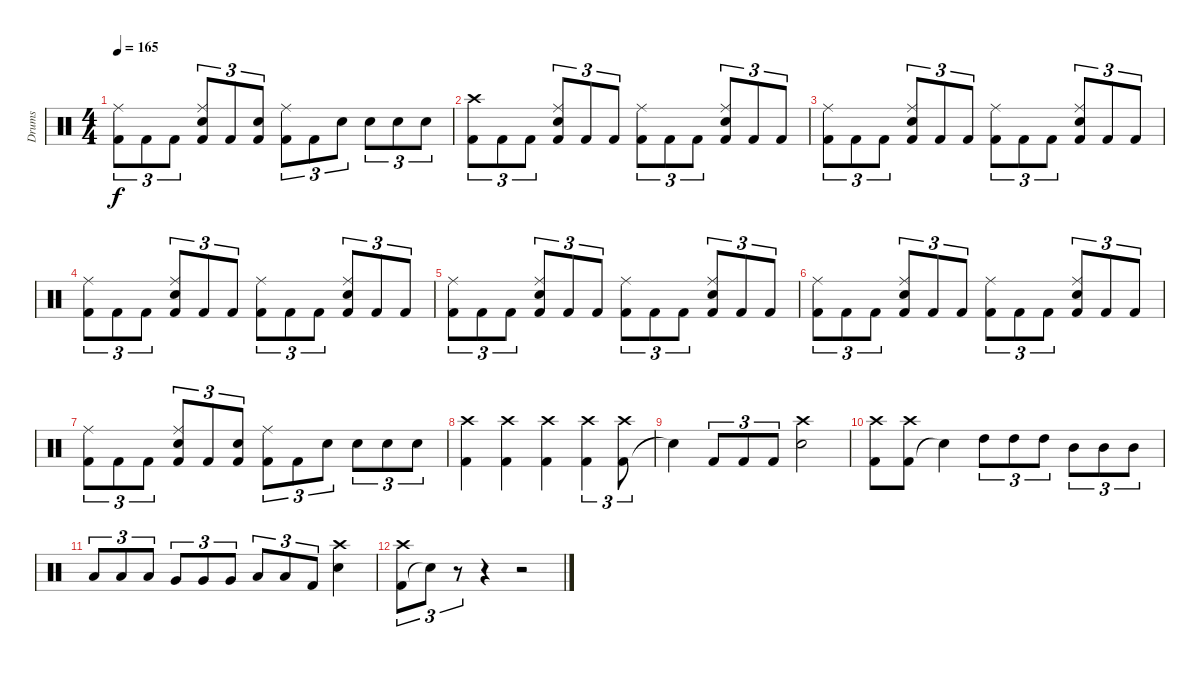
\track ("Drums" "Drums") {instrument percussion}
\staff {score}
\articulation defaults
\ts (4 4)
\tempo 165
\clef neutral
\ks c
("Kick (hit) 2" "Ride (middle)").8{tu (3 2) dy f} "Kick (hit) 2".8{tu (3 2)} "Kick (hit) 2".8{tu (3 2)} ("Kick (hit) 2" "Snare (hit) 2" "Ride (middle)").8{tu (3 2)} "Kick (hit) 2".8{tu (3 2)} ("Kick (hit) 2" "Snare (hit) 2").8{tu (3 2)} ("Kick (hit) 2" "Ride (middle)").8{tu (3 2)} "Kick (hit) 2".8{tu (3 2)} "Snare (hit) 2".8{tu (3 2)} "Snare (hit) 2".8{tu (3 2)} "Snare (hit) 2".8{tu (3 2)} "Snare (hit) 2".8{tu (3 2)} |
("Kick (hit) 2" "Crash high (hit)").8{tu (3 2)} "Kick (hit) 2".8{tu (3 2)} "Kick (hit) 2".8{tu (3 2)} ("Kick (hit) 2" "Snare (hit) 2" "Ride (middle)").8{tu (3 2)} "Kick (hit) 2".8{tu (3 2)} "Kick (hit) 2".8{tu (3 2)} ("Kick (hit) 2" "Ride (middle)").8{tu (3 2)} "Kick (hit) 2".8{tu (3 2)} "Kick (hit) 2".8{tu (3 2)} ("Kick (hit) 2" "Snare (hit) 2" "Ride (middle)").8{tu (3 2)} "Kick (hit) 2".8{tu (3 2)} "Kick (hit) 2".8{tu (3 2)} |
("Kick (hit) 2" "Ride (middle)").8{tu (3 2)} "Kick (hit) 2".8{tu (3 2)} "Kick (hit) 2".8{tu (3 2)} ("Kick (hit) 2" "Snare (hit) 2" "Ride (middle)").8{tu (3 2)} "Kick (hit) 2".8{tu (3 2)} "Kick (hit) 2".8{tu (3 2)} ("Kick (hit) 2" "Ride (middle)").8{tu (3 2)} "Kick (hit) 2".8{tu (3 2)} "Kick (hit) 2".8{tu (3 2)} ("Kick (hit) 2" "Snare (hit) 2" "Ride (middle)").8{tu (3 2)} "Kick (hit) 2".8{tu (3 2)} "Kick (hit) 2".8{tu (3 2)} |
("Kick (hit) 2" "Ride (middle)").8{tu (3 2)} "Kick (hit) 2".8{tu (3 2)} "Kick (hit) 2".8{tu (3 2)} ("Kick (hit) 2" "Snare (hit) 2" "Ride (middle)").8{tu (3 2)} "Kick (hit) 2".8{tu (3 2)} "Kick (hit) 2".8{tu (3 2)} ("Kick (hit) 2" "Ride (middle)").8{tu (3 2)} "Kick (hit) 2".8{tu (3 2)} "Kick (hit) 2".8{tu (3 2)} ("Kick (hit) 2" "Snare (hit) 2" "Ride (middle)").8{tu (3 2)} "Kick (hit) 2".8{tu (3 2)} "Kick (hit) 2".8{tu (3 2)} |
("Kick (hit) 2" "Ride (middle)").8{tu (3 2)} "Kick (hit) 2".8{tu (3 2)} "Kick (hit) 2".8{tu (3 2)} ("Kick (hit) 2" "Snare (hit) 2" "Ride (middle)").8{tu (3 2)} "Kick (hit) 2".8{tu (3 2)} "Kick (hit) 2".8{tu (3 2)} ("Kick (hit) 2" "Ride (middle)").8{tu (3 2)} "Kick (hit) 2".8{tu (3 2)} "Kick (hit) 2".8{tu (3 2)} ("Kick (hit) 2" "Snare (hit) 2" "Ride (middle)").8{tu (3 2)} "Kick (hit) 2".8{tu (3 2)} "Kick (hit) 2".8{tu (3 2)} |
("Kick (hit) 2" "Ride (middle)").8{tu (3 2)} "Kick (hit) 2".8{tu (3 2)} "Kick (hit) 2".8{tu (3 2)} ("Kick (hit) 2" "Snare (hit) 2" "Ride (middle)").8{tu (3 2)} "Kick (hit) 2".8{tu (3 2)} "Kick (hit) 2".8{tu (3 2)} ("Kick (hit) 2" "Ride (middle)").8{tu (3 2)} "Kick (hit) 2".8{tu (3 2)} "Kick (hit) 2".8{tu (3 2)} ("Kick (hit) 2" "Snare (hit) 2" "Ride (middle)").8{tu (3 2)} "Kick (hit) 2".8{tu (3 2)} "Kick (hit) 2".8{tu (3 2)} |
("Kick (hit) 2" "Ride (middle)").8{tu (3 2)} "Kick (hit) 2".8{tu (3 2)} "Kick (hit) 2".8{tu (3 2)} ("Kick (hit) 2" "Snare (hit) 2" "Ride (middle)").8{tu (3 2)} "Kick (hit) 2".8{tu (3 2)} ("Kick (hit) 2" "Snare (hit) 2").8{tu (3 2)} ("Kick (hit) 2" "Ride (middle)").8{tu (3 2)} "Kick (hit) 2".8{tu (3 2)} "Snare (hit) 2".8{tu (3 2)} "Snare (hit) 2".8{tu (3 2)} "Snare (hit) 2".8{tu (3 2)} "Snare (hit) 2".8{tu (3 2)} |
("Kick (hit) 2" "Crash high (hit)").4 ("Kick (hit) 2" "Crash high (hit)").4 ("Kick (hit) 2" "Crash high (hit)").4 ("Kick (hit) 2" "Crash high (hit)").4{tu (3 2)} ("Kick (hit) 2" "Crash high (hit)").8{tu (3 2)} |
"Snare (hit)"{t}.4 "Kick (hit) 2".8{tu (3 2)} "Kick (hit) 2".8{tu (3 2)} "Kick (hit) 2".8{tu (3 2)} ("Snare (hit) 2" "Crash high (hit)").2 |
("Kick (hit) 2" "Crash high (hit)").8 ("Kick (hit) 2" "Crash high (hit)").8 "Snare (hit)"{t}.4 "High Tom (hit)".8{tu (3 2)} "High Tom (hit)".8{tu (3 2)} "High Tom (hit)".8{tu (3 2)} "Mid Tom (hit)".8{tu (3 2)} "Mid Tom (hit)".8{tu (3 2)} "Mid Tom (hit)".8{tu (3 2)} |
"Low Tom (hit)".8{tu (3 2)} "Low Tom (hit)".8{tu (3 2)} "Low Tom (hit)".8{tu (3 2)} "Very Low Tom (hit)".8{tu (3 2)} "Very Low Tom (hit)".8{tu (3 2)} "Very Low Tom (hit)".8{tu (3 2)} "Low Floor Tom (hit)".8{tu (3 2)} "Low Floor Tom (hit)".8{tu (3 2)} "Kick (hit) 2".8{tu (3 2)} ("Snare (hit) 2" "Crash high (hit)").4 |
("Kick (hit) 2" "Crash high (hit)").8{tu (3 2)} "Snare (hit)"{t}.8{tu (3 2)} r.8{tu (3 2)} r.4 r.2
